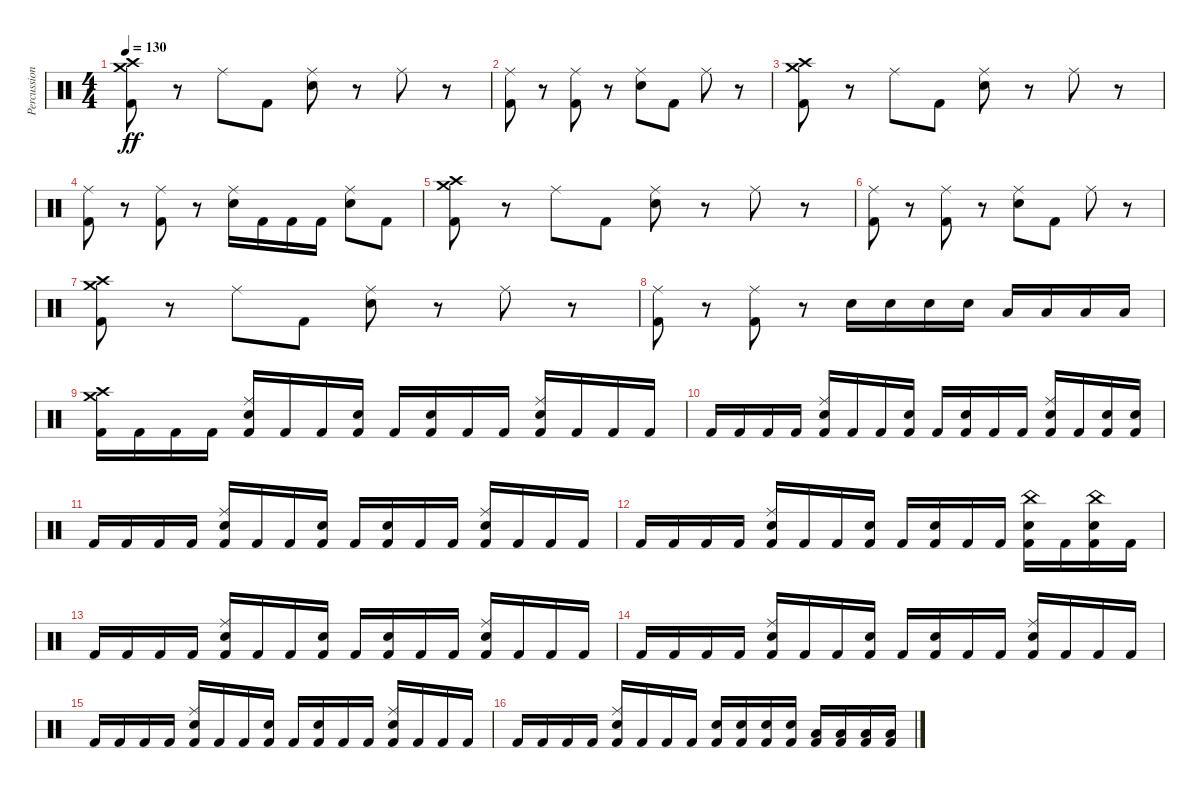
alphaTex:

\track ("Percussion" "Percussion") {instrument percussion}
\staff {score}
\articulation defaults
\ts (4 4)
\tempo 130
\clef neutral
\ks c
("Kick (hit) 2" "Crash high (hit)" "Crash medium (hit)").8{dy ff} r.8 "Ride (middle)".8 "Kick (hit) 2".8 ("Electric Snare (hit)" "Ride (middle)").8 r.8 "Ride (middle)".8 r.8 |
("Kick (hit) 2" "Ride (middle)").8 r.8 ("Kick (hit) 2" "Ride (middle)").8 r.8 ("Electric Snare (hit)" "Ride (middle)").8 "Kick (hit) 2".8 "Ride (middle)".8 r.8 |
("Kick (hit) 2" "Crash high (hit)" "Crash medium (hit)").8 r.8 "Ride (middle)".8 "Kick (hit) 2".8 ("Electric Snare (hit)" "Ride (middle)").8 r.8 "Ride (middle)".8 r.8 |
("Kick (hit) 2" "Ride (middle)").8 r.8 ("Kick (hit) 2" "Ride (middle)").8 r.8 ("Electric Snare (hit)" "Ride (middle)").16 "Kick (hit) 2".16 "Kick (hit) 2".16 "Kick (hit) 2".16 ("Electric Snare (hit)" "Ride (middle)").8 "Kick (hit) 2".8 |
("Kick (hit) 2" "Crash high (hit)" "Crash medium (hit)").8 r.8 "Ride (middle)".8 "Kick (hit) 2".8 ("Electric Snare (hit)" "Ride (middle)").8 r.8 "Ride (middle)".8 r.8 |
("Kick (hit) 2" "Ride (middle)").8 r.8 ("Kick (hit) 2" "Ride (middle)").8 r.8 ("Electric Snare (hit)" "Ride (middle)").8 "Kick (hit) 2".8 "Ride (middle)".8 r.8 |
("Kick (hit) 2" "Crash high (hit)" "Crash medium (hit)").8 r.8 "Ride (middle)".8 "Kick (hit) 2".8 ("Electric Snare (hit)" "Ride (middle)").8 r.8 "Ride (middle)".8 r.8 |
("Kick (hit) 2" "Ride (middle)").8 r.8 ("Kick (hit) 2" "Ride (middle)").8 r.8 "Electric Snare (hit)".16 "Electric Snare (hit)".16 "Electric Snare (hit)".16 "Electric Snare (hit)".16 "Low Tom (hit)".16 "Low Tom (hit)".16 "Low Tom (hit)".16 "Low Tom (hit)".16 |
("Kick (hit) 2" "Crash medium (hit)" "Crash high (hit)").16 "Kick (hit) 2".16 "Kick (hit) 2".16 "Kick (hit) 2".16 ("Kick (hit) 2" "Electric Snare (hit)" "Ride (middle)").16 "Kick (hit) 2".16 "Kick (hit) 2".16 ("Kick (hit) 2" "Electric Snare (hit)").16 "Kick (hit) 2".16 ("Kick (hit) 2" "Electric Snare (hit)").16 "Kick (hit) 2".16 "Kick (hit) 2".16 ("Kick (hit) 2" "Electric Snare (hit)" "Ride (middle)").16 "Kick (hit) 2".16 "Kick (hit) 2".16 "Kick (hit) 2".16 |
"Kick (hit) 2".16 "Kick (hit) 2".16 "Kick (hit) 2".16 "Kick (hit) 2".16 ("Kick (hit) 2" "Electric Snare (hit)" "Ride (middle)").16 "Kick (hit) 2".16 "Kick (hit) 2".16 ("Kick (hit) 2" "Electric Snare (hit)").16 "Kick (hit) 2".16 ("Kick (hit) 2" "Electric Snare (hit)").16 "Kick (hit) 2".16 "Kick (hit) 2".16 ("Kick (hit) 2" "Electric Snare (hit)" "Ride (middle)").16 "Kick (hit) 2".16 ("Kick (hit) 2" "Electric Snare (hit)").16 ("Kick (hit) 2" "Electric Snare (hit)").16 |
"Kick (hit) 2".16 "Kick (hit) 2".16 "Kick (hit) 2".16 "Kick (hit) 2".16 ("Kick (hit) 2" "Electric Snare (hit)" "Ride (middle)").16 "Kick (hit) 2".16 "Kick (hit) 2".16 ("Kick (hit) 2" "Electric Snare (hit)").16 "Kick (hit) 2".16 ("Kick (hit) 2" "Electric Snare (hit)").16 "Kick (hit) 2".16 "Kick (hit) 2".16 ("Kick (hit) 2" "Electric Snare (hit)" "Ride (middle)").16 "Kick (hit) 2".16 "Kick (hit) 2".16 "Kick (hit) 2".16 |
"Kick (hit) 2".16 "Kick (hit) 2".16 "Kick (hit) 2".16 "Kick (hit) 2".16 ("Kick (hit) 2" "Electric Snare (hit)" "Ride (middle)").16 "Kick (hit) 2".16 "Kick (hit) 2".16 ("Kick (hit) 2" "Electric Snare (hit)").16 "Kick (hit) 2".16 ("Kick (hit) 2" "Electric Snare (hit)").16 "Kick (hit) 2".16 "Kick (hit) 2".16 ("Kick (hit) 2" "Electric Snare (hit)" "China (hit)").16 "Kick (hit) 2".16 ("Kick (hit) 2" "Electric Snare (hit)" "China (hit)").16 "Kick (hit) 2".16 |
"Kick (hit) 2".16 "Kick (hit) 2".16 "Kick (hit) 2".16 "Kick (hit) 2".16 ("Kick (hit) 2" "Electric Snare (hit)" "Ride (middle)").16 "Kick (hit) 2".16 "Kick (hit) 2".16 ("Kick (hit) 2" "Electric Snare (hit)").16 "Kick (hit) 2".16 ("Kick (hit) 2" "Electric Snare (hit)").16 "Kick (hit) 2".16 "Kick (hit) 2".16 ("Kick (hit) 2" "Electric Snare (hit)" "Ride (middle)").16 "Kick (hit) 2".16 "Kick (hit) 2".16 "Kick (hit) 2".16 |
"Kick (hit) 2".16 "Kick (hit) 2".16 "Kick (hit) 2".16 "Kick (hit) 2".16 ("Kick (hit) 2" "Electric Snare (hit)" "Ride (middle)").16 "Kick (hit) 2".16 "Kick (hit) 2".16 ("Kick (hit) 2" "Electric Snare (hit)").16 "Kick (hit) 2".16 ("Kick (hit) 2" "Electric Snare (hit)").16 "Kick (hit) 2".16 "Kick (hit) 2".16 ("Kick (hit) 2" "Electric Snare (hit)" "Ride (middle)").16 "Kick (hit) 2".16 "Kick (hit) 2".16 "Kick (hit) 2".16 |
"Kick (hit) 2".16 "Kick (hit) 2".16 "Kick (hit) 2".16 "Kick (hit) 2".16 ("Kick (hit) 2" "Electric Snare (hit)" "Ride (middle)").16 "Kick (hit) 2".16 "Kick (hit) 2".16 ("Kick (hit) 2" "Electric Snare (hit)").16 "Kick (hit) 2".16 ("Kick (hit) 2" "Electric Snare (hit)").16 "Kick (hit) 2".16 "Kick (hit) 2".16 ("Kick (hit) 2" "Electric Snare (hit)" "Ride (middle)").16 "Kick (hit) 2".16 "Kick (hit) 2".16 "Kick (hit) 2".16 |
"Kick (hit) 2".16 "Kick (hit) 2".16 "Kick (hit) 2".16 "Kick (hit) 2".16 ("Kick (hit) 2" "Electric Snare (hit)" "Ride (middle)").16 "Kick (hit) 2".16 "Kick (hit) 2".16 "Kick (hit) 2".16 ("Kick (hit) 2" "Electric Snare (hit)").16 ("Kick (hit) 2" "Electric Snare (hit)").16 ("Kick (hit) 2" "Electric Snare (hit)").16 ("Kick (hit) 2" "Electric Snare (hit)").16 ("Kick (hit) 2" "Low Tom (hit)").16 ("Kick (hit) 2" "Low Tom (hit)").16 ("Kick (hit) 2" "Low Tom (hit)").16 ("Kick (hit) 2" "Low Tom (hit)").16
